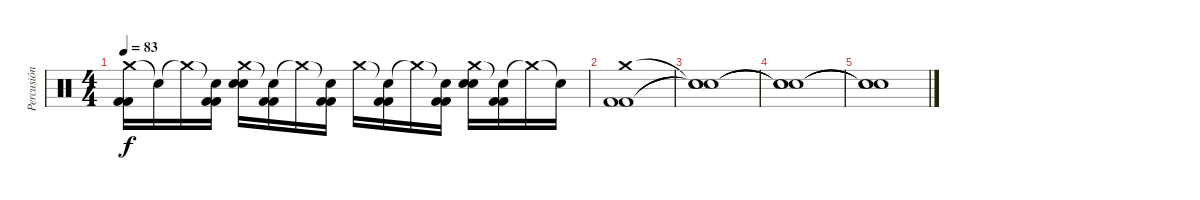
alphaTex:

\track ("Percusión" "Percusión") {instrument percussion}
\staff {score}
\articulation defaults
\ts (4 4)
\tempo 83
\clef neutral
\ks c
("Crash medium (hit)" "Kick (hit) 2" "Kick (hit) 2").16{dy f} "Snare (hit)"{t}.16 "Crash medium (hit)"{t}.16 ("Snare (hit)"{t} "Kick (hit) 2" "Kick (hit) 2").16 ("Crash medium (hit)" "Electric Snare (hit)" "Electric Snare (hit)").16 ("Snare (hit)"{t} "Kick (hit) 2" "Kick (hit) 2").16 "Crash medium (hit)"{t}.16 ("Snare (hit)"{t} "Kick (hit) 2" "Kick (hit) 2").16 "Crash medium (hit)".16 ("Snare (hit)"{t} "Kick (hit) 2" "Kick (hit) 2").16 "Crash medium (hit)"{t}.16 ("Snare (hit)"{t} "Kick (hit) 2" "Kick (hit) 2").16 ("Crash medium (hit)" "Electric Snare (hit)" "Electric Snare (hit)").16 ("Snare (hit)"{t} "Kick (hit) 2" "Kick (hit) 2").16 "Crash medium (hit)"{t}.16 "Snare (hit)"{t}.16 |
("Crash medium (hit)" "Kick (hit) 2" "Kick (hit) 2").1 |
("Snare (hit)"{t} "Snare (hit)"{t} "Snare (hit)"{t}).1 |
("Snare (hit)"{t} "Snare (hit)"{t} "Snare (hit)"{t}).1 |
("Snare (hit)"{t} "Snare (hit)"{t} "Snare (hit)"{t}).1
